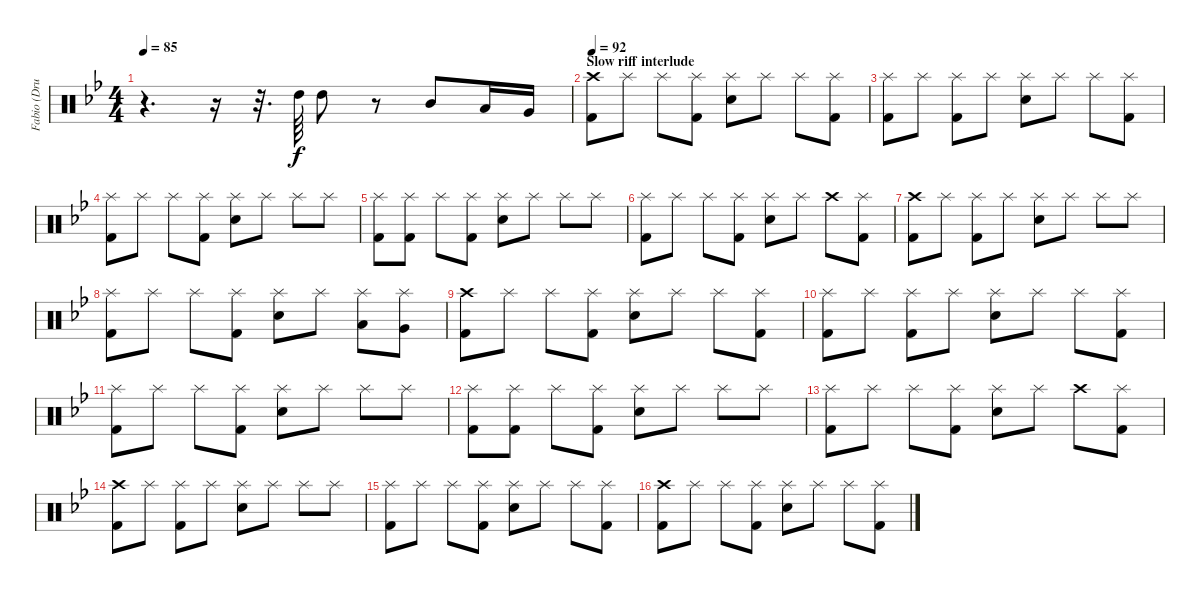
\track ("Fabio (Drums)" "Fabio (Dru") {instrument percussion}
\staff {score}
\articulation defaults
\ts (4 4)
\tempo 85
\clef neutral
\ks gminor
r.4{d dy f} r.16 r.32{d} "High Tom (hit)".64 "High Tom (hit)".8 r.8 "Mid Tom (hit)".8 "Low Tom (hit)".16 "Very Low Tom (hit)".16 |
\section ("" "Slow riff interlude")
\tempo 92
("Crash high (hit)" "Kick (hit) 2").8 "Splash (hit)".8 "Splash (hit)".8 ("Splash (hit)" "Kick (hit) 2").8 ("Splash (hit)" "Snare (hit) 2").8 "Splash (hit)".8 "Splash (hit)".8 ("Splash (hit)" "Kick (hit) 2").8 |
("Splash (hit)" "Kick (hit) 2").8 "Splash (hit)".8 ("Splash (hit)" "Kick (hit) 2").8 "Splash (hit)".8 ("Splash (hit)" "Snare (hit) 2").8 "Splash (hit)".8 "Splash (hit)".8 ("Splash (hit)" "Kick (hit) 2").8 |
("Splash (hit)" "Kick (hit) 2").8 "Splash (hit)".8 "Splash (hit)".8 ("Splash (hit)" "Kick (hit) 2").8 ("Splash (hit)" "Snare (hit) 2").8 "Splash (hit)".8 "Splash (hit)".8 "Splash (hit)".8 |
("Splash (hit)" "Kick (hit) 2").8 ("Splash (hit)" "Kick (hit) 2").8 "Splash (hit)".8 ("Splash (hit)" "Kick (hit) 2").8 ("Splash (hit)" "Snare (hit) 2").8 "Splash (hit)".8 "Splash (hit)".8 "Splash (hit)".8 |
("Splash (hit)" "Kick (hit) 2").8 "Splash (hit)".8 "Splash (hit)".8 ("Splash (hit)" "Kick (hit) 2").8 ("Splash (hit)" "Snare (hit) 2").8 "Splash (hit)".8 "Crash high (hit)".8 ("Splash (hit)" "Kick (hit) 2").8 |
("Crash high (hit)" "Kick (hit) 2").8 "Splash (hit)".8 ("Splash (hit)" "Kick (hit) 2").8 "Splash (hit)".8 ("Splash (hit)" "Snare (hit) 2").8 "Splash (hit)".8 "Splash (hit)".8 "Splash (hit)".8 |
("Splash (hit)" "Kick (hit) 2").8 "Splash (hit)".8 "Splash (hit)".8 ("Splash (hit)" "Kick (hit) 2").8 ("Splash (hit)" "Snare (hit) 2").8 "Splash (hit)".8 ("Splash (hit)" "Low Tom (hit)").8 ("Splash (hit)" "Very Low Tom (hit)").8 |
("Crash high (hit)" "Kick (hit) 2").8 "Splash (hit)".8 "Splash (hit)".8 ("Splash (hit)" "Kick (hit) 2").8 ("Splash (hit)" "Snare (hit) 2").8 "Splash (hit)".8 "Splash (hit)".8 ("Splash (hit)" "Kick (hit) 2").8 |
("Splash (hit)" "Kick (hit) 2").8 "Splash (hit)".8 ("Splash (hit)" "Kick (hit) 2").8 "Splash (hit)".8 ("Splash (hit)" "Snare (hit) 2").8 "Splash (hit)".8 "Splash (hit)".8 ("Splash (hit)" "Kick (hit) 2").8 |
("Splash (hit)" "Kick (hit) 2").8 "Splash (hit)".8 "Splash (hit)".8 ("Splash (hit)" "Kick (hit) 2").8 ("Splash (hit)" "Snare (hit) 2").8 "Splash (hit)".8 "Splash (hit)".8 "Splash (hit)".8 |
("Splash (hit)" "Kick (hit) 2").8 ("Splash (hit)" "Kick (hit) 2").8 "Splash (hit)".8 ("Splash (hit)" "Kick (hit) 2").8 ("Splash (hit)" "Snare (hit) 2").8 "Splash (hit)".8 "Splash (hit)".8 "Splash (hit)".8 |
("Splash (hit)" "Kick (hit) 2").8 "Splash (hit)".8 "Splash (hit)".8 ("Splash (hit)" "Kick (hit) 2").8 ("Splash (hit)" "Snare (hit) 2").8 "Splash (hit)".8 "Crash high (hit)".8 ("Splash (hit)" "Kick (hit) 2").8 |
("Crash high (hit)" "Kick (hit) 2").8 "Splash (hit)".8 ("Splash (hit)" "Kick (hit) 2").8 "Splash (hit)".8 ("Splash (hit)" "Snare (hit) 2").8 "Splash (hit)".8 "Splash (hit)".8 "Splash (hit)".8 |
("Splash (hit)" "Kick (hit) 2").8 "Splash (hit)".8 "Splash (hit)".8 ("Splash (hit)" "Kick (hit) 2").8 ("Splash (hit)" "Snare (hit) 2").8 "Splash (hit)".8 "Splash (hit)".8 ("Splash (hit)" "Kick (hit) 2").8 |
("Crash high (hit)" "Kick (hit) 2").8 "Splash (hit)".8 "Splash (hit)".8 ("Splash (hit)" "Kick (hit) 2").8 ("Splash (hit)" "Snare (hit) 2").8 "Splash (hit)".8 "Splash (hit)".8 ("Splash (hit)" "Kick (hit) 2").8
